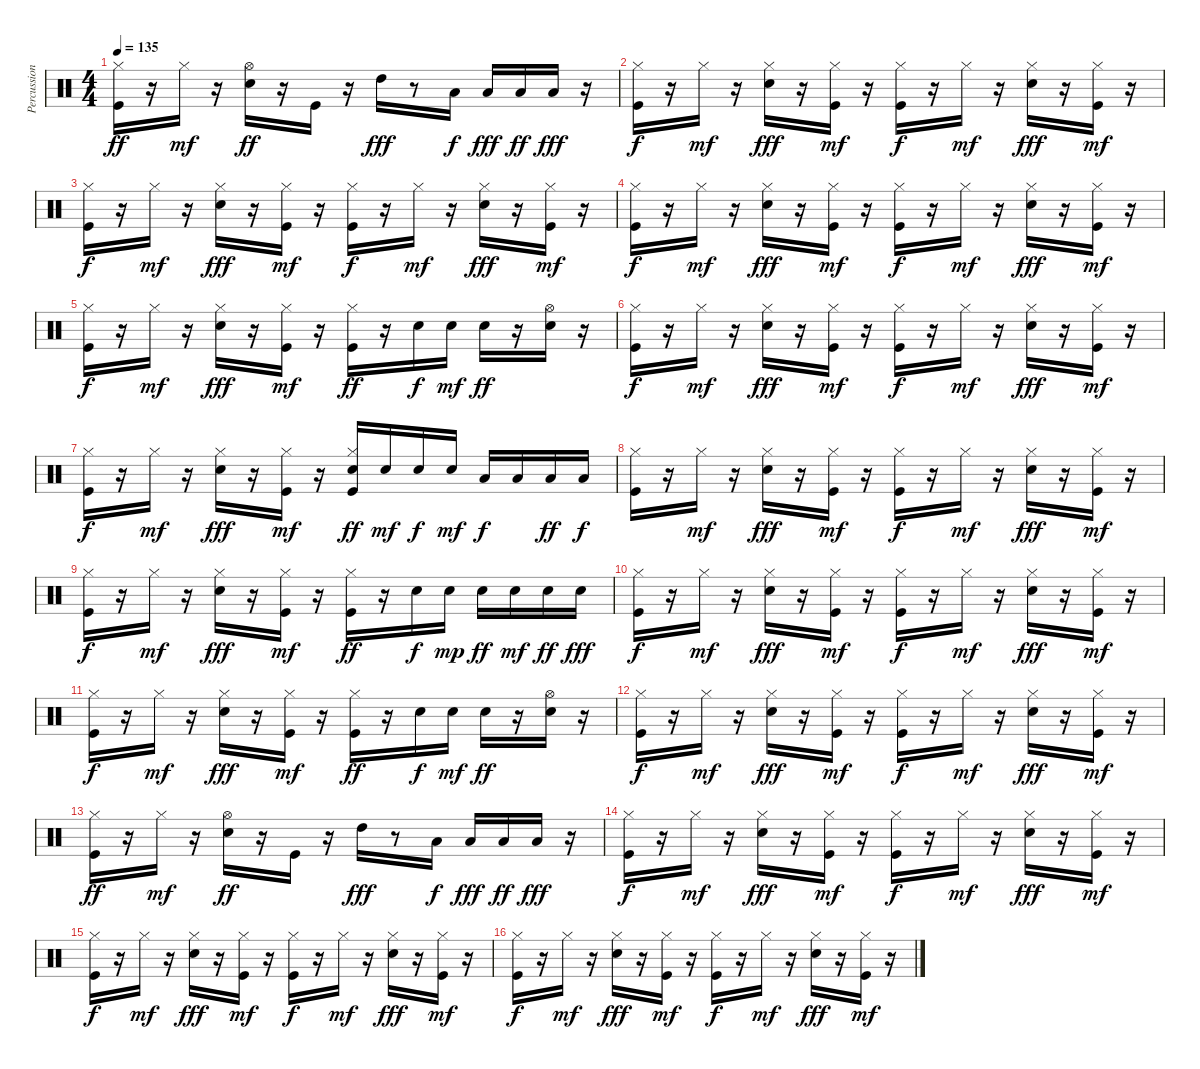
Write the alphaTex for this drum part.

\track ("Percussions" "Percussion") {instrument percussion}
\staff {score}
\articulation defaults
\ts (4 4)
\tempo 135
\clef neutral
\ks c
("Kick (hit)" "Hi-Hat (closed)").16{dy ff} r.16 "Hi-Hat (closed)".16{dy mf} r.16 ("Snare (hit) 2" "Hi-Hat (open)").16{dy ff} r.16 "Kick (hit)".16 r.16 "High Tom (hit)".16{dy fff} r.8 "Low Tom (hit)".16{dy f} "Low Tom (hit)".16{dy fff} "Low Floor Tom (hit)".16{dy ff} "Low Floor Tom (hit)".16{dy fff} r.16 |
("Kick (hit)" "Hi-Hat (closed)").16{dy f} r.16 "Hi-Hat (closed)".16{dy mf} r.16 ("Snare (hit) 2" "Hi-Hat (closed)").16{dy fff} r.16 ("Kick (hit)" "Hi-Hat (closed)").16{dy mf} r.16 ("Kick (hit)" "Hi-Hat (closed)").16{dy f} r.16 "Hi-Hat (closed)".16{dy mf} r.16 ("Snare (hit) 2" "Hi-Hat (closed)").16{dy fff} r.16 ("Kick (hit)" "Hi-Hat (closed)").16{dy mf} r.16 |
("Kick (hit)" "Hi-Hat (closed)").16{dy f} r.16 "Hi-Hat (closed)".16{dy mf} r.16 ("Snare (hit) 2" "Hi-Hat (closed)").16{dy fff} r.16 ("Kick (hit)" "Hi-Hat (closed)").16{dy mf} r.16 ("Kick (hit)" "Hi-Hat (closed)").16{dy f} r.16 "Hi-Hat (closed)".16{dy mf} r.16 ("Snare (hit) 2" "Hi-Hat (closed)").16{dy fff} r.16 ("Kick (hit)" "Hi-Hat (closed)").16{dy mf} r.16 |
("Kick (hit)" "Hi-Hat (closed)").16{dy f} r.16 "Hi-Hat (closed)".16{dy mf} r.16 ("Snare (hit) 2" "Hi-Hat (closed)").16{dy fff} r.16 ("Kick (hit)" "Hi-Hat (closed)").16{dy mf} r.16 ("Kick (hit)" "Hi-Hat (closed)").16{dy f} r.16 "Hi-Hat (closed)".16{dy mf} r.16 ("Snare (hit) 2" "Hi-Hat (closed)").16{dy fff} r.16 ("Kick (hit)" "Hi-Hat (closed)").16{dy mf} r.16 |
("Kick (hit)" "Hi-Hat (closed)").16{dy f} r.16 "Hi-Hat (closed)".16{dy mf} r.16 ("Snare (hit) 2" "Hi-Hat (closed)").16{dy fff} r.16 ("Kick (hit)" "Hi-Hat (closed)").16{dy mf} r.16 ("Kick (hit)" "Hi-Hat (closed)").16{dy ff} r.16 "Snare (hit) 2".16{dy f} "Snare (hit) 2".16{dy mf} "Snare (hit) 2".16{dy ff} r.16 ("Snare (hit) 2" "Hi-Hat (open)").16 r.16 |
("Kick (hit)" "Hi-Hat (closed)").16{dy f} r.16 "Hi-Hat (closed)".16{dy mf} r.16 ("Snare (hit) 2" "Hi-Hat (closed)").16{dy fff} r.16 ("Kick (hit)" "Hi-Hat (closed)").16{dy mf} r.16 ("Kick (hit)" "Hi-Hat (closed)").16{dy f} r.16 "Hi-Hat (closed)".16{dy mf} r.16 ("Snare (hit) 2" "Hi-Hat (closed)").16{dy fff} r.16 ("Kick (hit)" "Hi-Hat (closed)").16{dy mf} r.16 |
("Kick (hit)" "Hi-Hat (closed)").16{dy f} r.16 "Hi-Hat (closed)".16{dy mf} r.16 ("Snare (hit) 2" "Hi-Hat (closed)").16{dy fff} r.16 ("Kick (hit)" "Hi-Hat (closed)").16{dy mf} r.16 ("Kick (hit)" "Snare (hit) 2" "Hi-Hat (closed)").16{dy ff} "Snare (hit) 2".16{dy mf} "Snare (hit) 2".16{dy f} "Snare (hit) 2".16{dy mf} "Low Tom (hit)".16{dy f} "Low Tom (hit)".16 "Low Tom (hit)".16{dy ff} "Low Tom (hit)".16{dy f} |
("Kick (hit)" "Hi-Hat (closed)").16 r.16 "Hi-Hat (closed)".16{dy mf} r.16 ("Snare (hit) 2" "Hi-Hat (closed)").16{dy fff} r.16 ("Kick (hit)" "Hi-Hat (closed)").16{dy mf} r.16 ("Kick (hit)" "Hi-Hat (closed)").16{dy f} r.16 "Hi-Hat (closed)".16{dy mf} r.16 ("Snare (hit) 2" "Hi-Hat (closed)").16{dy fff} r.16 ("Kick (hit)" "Hi-Hat (closed)").16{dy mf} r.16 |
("Kick (hit)" "Hi-Hat (closed)").16{dy f} r.16 "Hi-Hat (closed)".16{dy mf} r.16 ("Snare (hit) 2" "Hi-Hat (closed)").16{dy fff} r.16 ("Kick (hit)" "Hi-Hat (closed)").16{dy mf} r.16 ("Kick (hit)" "Hi-Hat (closed)").16{dy ff} r.16 "Snare (hit) 2".16{dy f} "Snare (hit) 2".16{dy mp} "Snare (hit) 2".16{dy ff} "Snare (hit) 2".16{dy mf} "Snare (hit) 2".16{dy ff} "Snare (hit) 2".16{dy fff} |
("Kick (hit)" "Hi-Hat (closed)").16{dy f} r.16 "Hi-Hat (closed)".16{dy mf} r.16 ("Snare (hit) 2" "Hi-Hat (closed)").16{dy fff} r.16 ("Kick (hit)" "Hi-Hat (closed)").16{dy mf} r.16 ("Kick (hit)" "Hi-Hat (closed)").16{dy f} r.16 "Hi-Hat (closed)".16{dy mf} r.16 ("Snare (hit) 2" "Hi-Hat (closed)").16{dy fff} r.16 ("Kick (hit)" "Hi-Hat (closed)").16{dy mf} r.16 |
("Kick (hit)" "Hi-Hat (closed)").16{dy f} r.16 "Hi-Hat (closed)".16{dy mf} r.16 ("Snare (hit) 2" "Hi-Hat (closed)").16{dy fff} r.16 ("Kick (hit)" "Hi-Hat (closed)").16{dy mf} r.16 ("Kick (hit)" "Hi-Hat (closed)").16{dy ff} r.16 "Snare (hit) 2".16{dy f} "Snare (hit) 2".16{dy mf} "Snare (hit) 2".16{dy ff} r.16 ("Snare (hit) 2" "Hi-Hat (open)").16 r.16 |
("Kick (hit)" "Hi-Hat (closed)").16{dy f} r.16 "Hi-Hat (closed)".16{dy mf} r.16 ("Snare (hit) 2" "Hi-Hat (closed)").16{dy fff} r.16 ("Kick (hit)" "Hi-Hat (closed)").16{dy mf} r.16 ("Kick (hit)" "Hi-Hat (closed)").16{dy f} r.16 "Hi-Hat (closed)".16{dy mf} r.16 ("Snare (hit) 2" "Hi-Hat (closed)").16{dy fff} r.16 ("Kick (hit)" "Hi-Hat (closed)").16{dy mf} r.16 |
("Kick (hit)" "Hi-Hat (closed)").16{dy ff} r.16 "Hi-Hat (closed)".16{dy mf} r.16 ("Snare (hit) 2" "Hi-Hat (open)").16{dy ff} r.16 "Kick (hit)".16 r.16 "High Tom (hit)".16{dy fff} r.8 "Low Tom (hit)".16{dy f} "Low Tom (hit)".16{dy fff} "Low Floor Tom (hit)".16{dy ff} "Low Floor Tom (hit)".16{dy fff} r.16 |
("Kick (hit)" "Hi-Hat (closed)").16{dy f} r.16 "Hi-Hat (closed)".16{dy mf} r.16 ("Snare (hit) 2" "Hi-Hat (closed)").16{dy fff} r.16 ("Kick (hit)" "Hi-Hat (closed)").16{dy mf} r.16 ("Kick (hit)" "Hi-Hat (closed)").16{dy f} r.16 "Hi-Hat (closed)".16{dy mf} r.16 ("Snare (hit) 2" "Hi-Hat (closed)").16{dy fff} r.16 ("Kick (hit)" "Hi-Hat (closed)").16{dy mf} r.16 |
("Kick (hit)" "Hi-Hat (closed)").16{dy f} r.16 "Hi-Hat (closed)".16{dy mf} r.16 ("Snare (hit) 2" "Hi-Hat (closed)").16{dy fff} r.16 ("Kick (hit)" "Hi-Hat (closed)").16{dy mf} r.16 ("Kick (hit)" "Hi-Hat (closed)").16{dy f} r.16 "Hi-Hat (closed)".16{dy mf} r.16 ("Snare (hit) 2" "Hi-Hat (closed)").16{dy fff} r.16 ("Kick (hit)" "Hi-Hat (closed)").16{dy mf} r.16 |
("Kick (hit)" "Hi-Hat (closed)").16{dy f} r.16 "Hi-Hat (closed)".16{dy mf} r.16 ("Snare (hit) 2" "Hi-Hat (closed)").16{dy fff} r.16 ("Kick (hit)" "Hi-Hat (closed)").16{dy mf} r.16 ("Kick (hit)" "Hi-Hat (closed)").16{dy f} r.16 "Hi-Hat (closed)".16{dy mf} r.16 ("Snare (hit) 2" "Hi-Hat (closed)").16{dy fff} r.16 ("Kick (hit)" "Hi-Hat (closed)").16{dy mf} r.16
